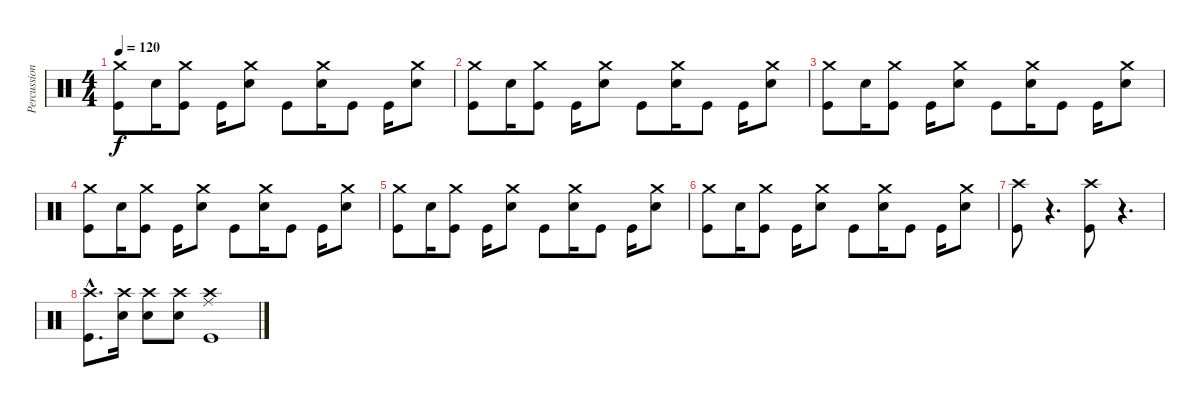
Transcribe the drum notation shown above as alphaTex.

\track ("Percussions" "Percussion") {instrument percussion}
\staff {score}
\articulation defaults
\ts (4 4)
\tempo 120
\clef neutral
\ks c
("Crash medium (hit)" "Kick (hit)").8{dy f} "Electric Snare (hit)".16 ("Crash medium (hit)" "Kick (hit)").8 "Kick (hit)".16 ("Crash medium (hit)" "Electric Snare (hit)").8 "Kick (hit)".8 ("Crash medium (hit)" "Electric Snare (hit)").16 "Kick (hit)".8 "Kick (hit)".16 ("Crash medium (hit)" "Electric Snare (hit)").8 |
("Crash medium (hit)" "Kick (hit)").8 "Electric Snare (hit)".16 ("Crash medium (hit)" "Kick (hit)").8 "Kick (hit)".16 ("Crash medium (hit)" "Electric Snare (hit)").8 "Kick (hit)".8 ("Crash medium (hit)" "Electric Snare (hit)").16 "Kick (hit)".8 "Kick (hit)".16 ("Crash medium (hit)" "Electric Snare (hit)").8 |
("Crash medium (hit)" "Kick (hit)").8 "Electric Snare (hit)".16 ("Crash medium (hit)" "Kick (hit)").8 "Kick (hit)".16 ("Crash medium (hit)" "Electric Snare (hit)").8 "Kick (hit)".8 ("Crash medium (hit)" "Electric Snare (hit)").16 "Kick (hit)".8 "Kick (hit)".16 ("Crash medium (hit)" "Electric Snare (hit)").8 |
("Crash medium (hit)" "Kick (hit)").8 "Electric Snare (hit)".16 ("Crash medium (hit)" "Kick (hit)").8 "Kick (hit)".16 ("Crash medium (hit)" "Electric Snare (hit)").8 "Kick (hit)".8 ("Crash medium (hit)" "Electric Snare (hit)").16 "Kick (hit)".8 "Kick (hit)".16 ("Crash medium (hit)" "Electric Snare (hit)").8 |
("Crash medium (hit)" "Kick (hit)").8 "Electric Snare (hit)".16 ("Crash medium (hit)" "Kick (hit)").8 "Kick (hit)".16 ("Crash medium (hit)" "Electric Snare (hit)").8 "Kick (hit)".8 ("Crash medium (hit)" "Electric Snare (hit)").16 "Kick (hit)".8 "Kick (hit)".16 ("Crash medium (hit)" "Electric Snare (hit)").8 |
("Crash medium (hit)" "Kick (hit)").8 "Electric Snare (hit)".16 ("Crash medium (hit)" "Kick (hit)").8 "Kick (hit)".16 ("Crash medium (hit)" "Electric Snare (hit)").8 "Kick (hit)".8 ("Crash medium (hit)" "Electric Snare (hit)").16 "Kick (hit)".8 "Kick (hit)".16 ("Crash medium (hit)" "Electric Snare (hit)").8 |
("Crash high (hit)" "Kick (hit)").8 r.4{d} ("Crash high (hit)" "Kick (hit)").8 r.4{d} |
("Crash high (hit)"{hac} "Kick (hit)"{hac}).8{d} ("Crash high (hit)" "Electric Snare (hit)").16 ("Crash high (hit)" "Electric Snare (hit)").8 ("Crash high (hit)" "Electric Snare (hit)").8 ("Ride (middle)" "Crash high (hit)" "Kick (hit)").1
